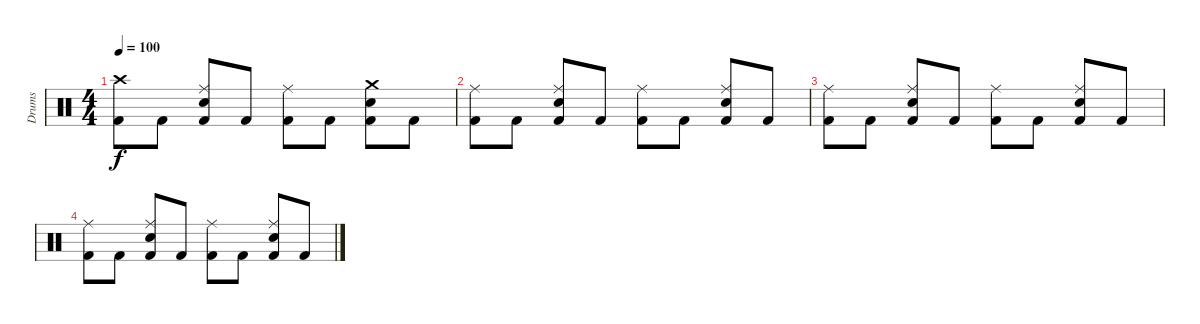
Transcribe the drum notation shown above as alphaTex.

\track ("Drums" "Drums") {instrument percussion}
\staff {score}
\articulation defaults
\ts (4 4)
\tempo 100
\clef neutral
\ks c
("Crash high (hit)" "Kick (hit) 2").8{dy f} "Kick (hit) 2".8 ("Ride (middle)" "Snare (hit) 2" "Kick (hit) 2").8 "Kick (hit) 2".8 ("Ride (middle)" "Kick (hit) 2").8 "Kick (hit) 2".8 ("Crash medium (hit)" "Snare (hit) 2" "Kick (hit) 2").8 "Kick (hit) 2".8 |
("Ride (middle)" "Kick (hit) 2").8 "Kick (hit) 2".8 ("Ride (middle)" "Snare (hit) 2" "Kick (hit) 2").8 "Kick (hit) 2".8 ("Ride (middle)" "Kick (hit) 2").8 "Kick (hit) 2".8 ("Ride (middle)" "Snare (hit) 2" "Kick (hit) 2").8 "Kick (hit) 2".8 |
("Ride (middle)" "Kick (hit) 2").8 "Kick (hit) 2".8 ("Ride (middle)" "Snare (hit) 2" "Kick (hit) 2").8 "Kick (hit) 2".8 ("Ride (middle)" "Kick (hit) 2").8 "Kick (hit) 2".8 ("Ride (middle)" "Snare (hit) 2" "Kick (hit) 2").8 "Kick (hit) 2".8 |
("Ride (middle)" "Kick (hit) 2").8 "Kick (hit) 2".8 ("Ride (middle)" "Snare (hit) 2" "Kick (hit) 2").8 "Kick (hit) 2".8 ("Ride (middle)" "Kick (hit) 2").8 "Kick (hit) 2".8 ("Ride (middle)" "Snare (hit) 2" "Kick (hit) 2").8 "Kick (hit) 2".8
